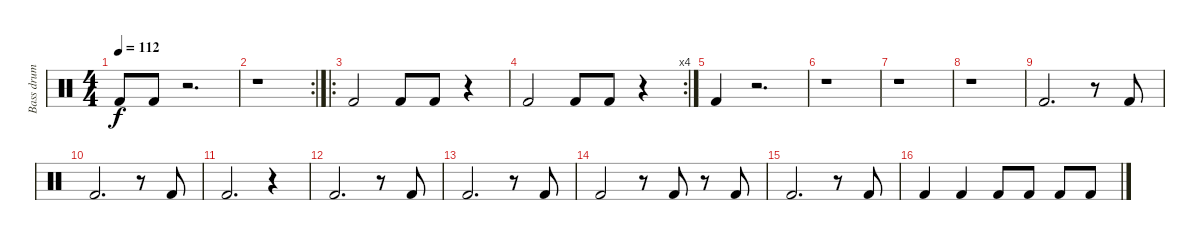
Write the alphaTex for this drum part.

\track ("Bass drum" "Bass drum") {instrument percussion}
\staff {score}
\articulation defaults
\ts (4 4)
\tempo 112
\clef neutral
\ks c "Kick (hit) 2".8{dy f} "Kick (hit) 2".8
r.2{d} |
\rc 2
r.1 |
\ro "Kick (hit) 2".2 "Kick (hit) 2".8 "Kick (hit) 2".8
r.4 |
\rc 4 "Kick (hit) 2".2 "Kick (hit) 2".8 "Kick (hit) 2".8
r.4 |
"Kick (hit) 2".4 r.2{d} |
r.1 |
r.1 |
r.1 |
"Kick (hit) 2".2{d} r.8 "Kick (hit) 2".8 |
"Kick (hit) 2".2{d} r.8 "Kick (hit) 2".8 |
"Kick (hit) 2".2{d} r.4 |
"Kick (hit) 2".2{d} r.8 "Kick (hit) 2".8 |
"Kick (hit) 2".2{d} r.8 "Kick (hit) 2".8 |
"Kick (hit) 2".2 r.8 "Kick (hit) 2".8 r.8 "Kick (hit) 2".8 |
"Kick (hit) 2".2{d} r.8 "Kick (hit) 2".8 |
"Kick (hit) 2".4 "Kick (hit) 2".4 "Kick (hit) 2".8 "Kick (hit) 2".8 "Kick (hit) 2".8 "Kick (hit) 2".8
